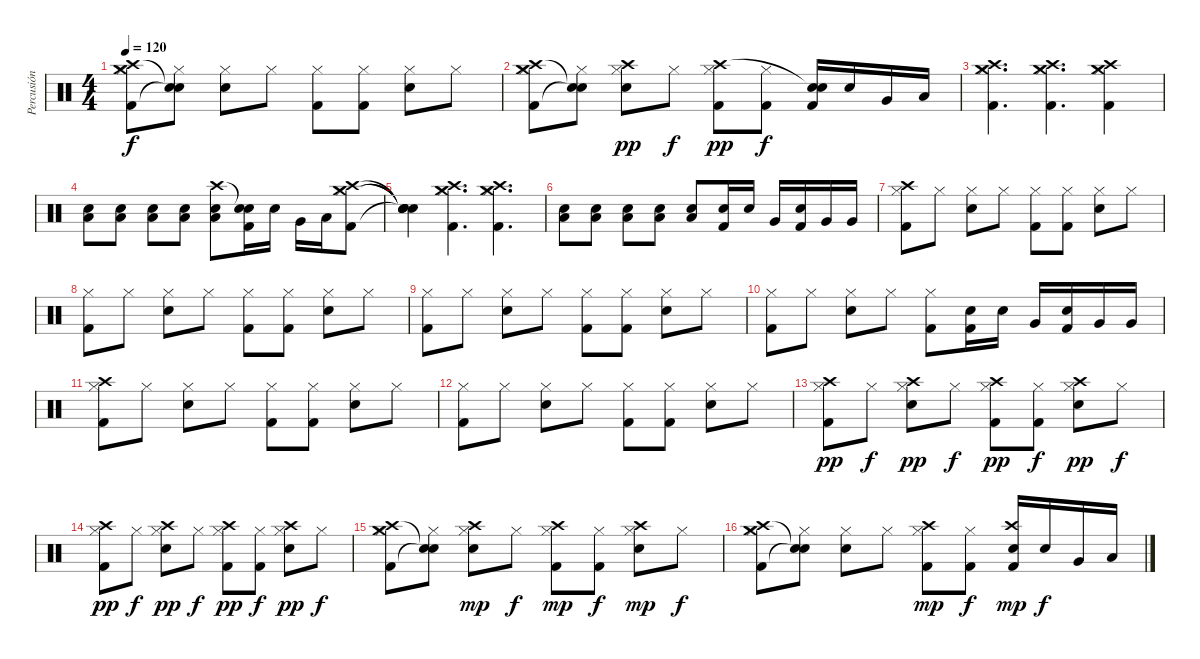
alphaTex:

\track ("Percusión" "Percusión") {instrument percussion}
\staff {score}
\articulation defaults
\ts (4 4)
\tempo 120
\clef neutral
\ks c
("Hi-Hat (closed)" "Kick (hit) 2" "Crash high (hit)" "Crash medium (hit)").8{dy f} ("Hi-Hat (closed)" "Snare (hit)"{t} "Snare (hit)"{t}).8 ("Hi-Hat (closed)" "Electric Snare (hit)").8 "Hi-Hat (closed)".8 ("Hi-Hat (closed)" "Kick (hit) 2").8 ("Hi-Hat (closed)" "Kick (hit) 2").8 ("Hi-Hat (closed)" "Electric Snare (hit)").8 "Hi-Hat (closed)".8 |
("Hi-Hat (closed)" "Kick (hit) 2" "Crash high (hit)" "Crash medium (hit)").8 ("Hi-Hat (closed)" "Snare (hit)"{t} "Snare (hit)"{t}).8 ("Hi-Hat (closed)" "Electric Snare (hit)" "Crash high (hit)").8{dy pp} "Hi-Hat (closed)".8{dy f} ("Hi-Hat (closed)" "Kick (hit) 2" "Crash high (hit)").8{dy pp} ("Hi-Hat (closed)" "Kick (hit) 2").8{dy f} ("Electric Snare (hit)" "Kick (hit) 2" "Snare (hit)"{t}).16 "Electric Snare (hit)".16 "Very Low Tom (hit)".16 "Low Floor Tom (hit)".16 |
("Hi-Hat (closed)" "Kick (hit) 2" "Crash high (hit)" "Crash medium (hit)").4{d} ("Hi-Hat (closed)" "Kick (hit) 2" "Crash high (hit)" "Crash medium (hit)").4{d} ("Hi-Hat (closed)" "Kick (hit) 2" "Crash high (hit)" "Crash medium (hit)").4 |
("Low Floor Tom (hit)" "Electric Snare (hit)").8 ("Low Floor Tom (hit)" "Electric Snare (hit)").8 ("Low Floor Tom (hit)" "Electric Snare (hit)").8 ("Low Floor Tom (hit)" "Electric Snare (hit)").8 ("Low Floor Tom (hit)" "Electric Snare (hit)" "Crash high (hit)").8 ("Electric Snare (hit)" "Kick (hit) 2" "Snare (hit)"{t}).16 "Electric Snare (hit)".16 "Very Low Tom (hit)".16 "Low Floor Tom (hit)".16 ("Hi-Hat (closed)" "Kick (hit) 2" "Crash high (hit)" "Crash medium (hit)").8 |
("Snare (hit)"{t} "Snare (hit)"{t} "Snare (hit)"{t} "Snare (hit)"{t}).4 ("Hi-Hat (closed)" "Kick (hit) 2" "Crash high (hit)" "Crash medium (hit)").4{d} ("Hi-Hat (closed)" "Kick (hit) 2" "Crash high (hit)" "Crash medium (hit)").4{d} |
("Low Floor Tom (hit)" "Electric Snare (hit)").8 ("Low Floor Tom (hit)" "Electric Snare (hit)").8 ("Low Floor Tom (hit)" "Electric Snare (hit)").8 ("Low Floor Tom (hit)" "Electric Snare (hit)").8 ("Low Floor Tom (hit)" "Electric Snare (hit)").8 ("Electric Snare (hit)" "Kick (hit) 2").16 "Electric Snare (hit)".16 "Very Low Tom (hit)".16 ("Electric Snare (hit)" "Kick (hit) 2").16 "Very Low Tom (hit)".16 "Very Low Tom (hit)".16 |
("Hi-Hat (closed)" "Kick (hit) 2" "Crash high (hit)").8 "Hi-Hat (closed)".8 ("Hi-Hat (closed)" "Electric Snare (hit)").8 "Hi-Hat (closed)".8 ("Hi-Hat (closed)" "Kick (hit) 2").8 ("Hi-Hat (closed)" "Kick (hit) 2").8 ("Hi-Hat (closed)" "Electric Snare (hit)").8 "Hi-Hat (closed)".8 |
("Hi-Hat (closed)" "Kick (hit) 2").8 "Hi-Hat (closed)".8 ("Hi-Hat (closed)" "Electric Snare (hit)").8 "Hi-Hat (closed)".8 ("Hi-Hat (closed)" "Kick (hit) 2").8 ("Hi-Hat (closed)" "Kick (hit) 2").8 ("Hi-Hat (closed)" "Electric Snare (hit)").8 "Hi-Hat (closed)".8 |
("Hi-Hat (closed)" "Kick (hit) 2").8 "Hi-Hat (closed)".8 ("Hi-Hat (closed)" "Electric Snare (hit)").8 "Hi-Hat (closed)".8 ("Hi-Hat (closed)" "Kick (hit) 2").8 ("Hi-Hat (closed)" "Kick (hit) 2").8 ("Hi-Hat (closed)" "Electric Snare (hit)").8 "Hi-Hat (closed)".8 |
("Hi-Hat (closed)" "Kick (hit) 2").8 "Hi-Hat (closed)".8 ("Hi-Hat (closed)" "Electric Snare (hit)").8 "Hi-Hat (closed)".8 ("Hi-Hat (closed)" "Kick (hit) 2").8 ("Electric Snare (hit)" "Kick (hit) 2").16 "Electric Snare (hit)".16 "Very Low Tom (hit)".16 ("Electric Snare (hit)" "Kick (hit) 2").16 "Very Low Tom (hit)".16 "Very Low Tom (hit)".16 |
("Hi-Hat (closed)" "Kick (hit) 2" "Crash high (hit)").8 "Hi-Hat (closed)".8 ("Hi-Hat (closed)" "Electric Snare (hit)").8 "Hi-Hat (closed)".8 ("Hi-Hat (closed)" "Kick (hit) 2").8 ("Hi-Hat (closed)" "Kick (hit) 2").8 ("Hi-Hat (closed)" "Electric Snare (hit)").8 "Hi-Hat (closed)".8 |
("Hi-Hat (closed)" "Kick (hit) 2").8 "Hi-Hat (closed)".8 ("Hi-Hat (closed)" "Electric Snare (hit)").8 "Hi-Hat (closed)".8 ("Hi-Hat (closed)" "Kick (hit) 2").8 ("Hi-Hat (closed)" "Kick (hit) 2").8 ("Hi-Hat (closed)" "Electric Snare (hit)").8 "Hi-Hat (closed)".8 |
("Hi-Hat (closed)" "Kick (hit) 2" "Crash high (hit)").8{dy pp} "Hi-Hat (closed)".8{dy f} ("Hi-Hat (closed)" "Electric Snare (hit)" "Crash high (hit)").8{dy pp} "Hi-Hat (closed)".8{dy f} ("Hi-Hat (closed)" "Kick (hit) 2" "Crash high (hit)").8{dy pp} ("Hi-Hat (closed)" "Kick (hit) 2").8{dy f} ("Hi-Hat (closed)" "Electric Snare (hit)" "Crash high (hit)").8{dy pp} "Hi-Hat (closed)".8{dy f} |
("Hi-Hat (closed)" "Kick (hit) 2" "Crash high (hit)").8{dy pp} "Hi-Hat (closed)".8{dy f} ("Hi-Hat (closed)" "Electric Snare (hit)" "Crash high (hit)").8{dy pp} "Hi-Hat (closed)".8{dy f} ("Hi-Hat (closed)" "Kick (hit) 2" "Crash high (hit)").8{dy pp} ("Hi-Hat (closed)" "Kick (hit) 2").8{dy f} ("Hi-Hat (closed)" "Electric Snare (hit)" "Crash high (hit)").8{dy pp} "Hi-Hat (closed)".8{dy f} |
("Hi-Hat (closed)" "Kick (hit) 2" "Crash high (hit)" "Crash medium (hit)").8 ("Hi-Hat (closed)" "Snare (hit)"{t} "Snare (hit)"{t}).8 ("Hi-Hat (closed)" "Electric Snare (hit)" "Crash high (hit)").8{dy mp} "Hi-Hat (closed)".8{dy f} ("Hi-Hat (closed)" "Kick (hit) 2" "Crash high (hit)").8{dy mp} ("Hi-Hat (closed)" "Kick (hit) 2").8{dy f} ("Hi-Hat (closed)" "Electric Snare (hit)" "Crash high (hit)").8{dy mp} "Hi-Hat (closed)".8{dy f} |
("Hi-Hat (closed)" "Kick (hit) 2" "Crash high (hit)" "Crash medium (hit)").8 ("Hi-Hat (closed)" "Snare (hit)"{t} "Snare (hit)"{t}).8 ("Hi-Hat (closed)" "Electric Snare (hit)").8 "Hi-Hat (closed)".8 ("Hi-Hat (closed)" "Kick (hit) 2" "Crash high (hit)").8{dy mp} ("Hi-Hat (closed)" "Kick (hit) 2").8{dy f} ("Electric Snare (hit)" "Kick (hit) 2" "Crash high (hit)").16{dy mp} "Electric Snare (hit)".16{dy f} "Very Low Tom (hit)".16 "Low Floor Tom (hit)".16
